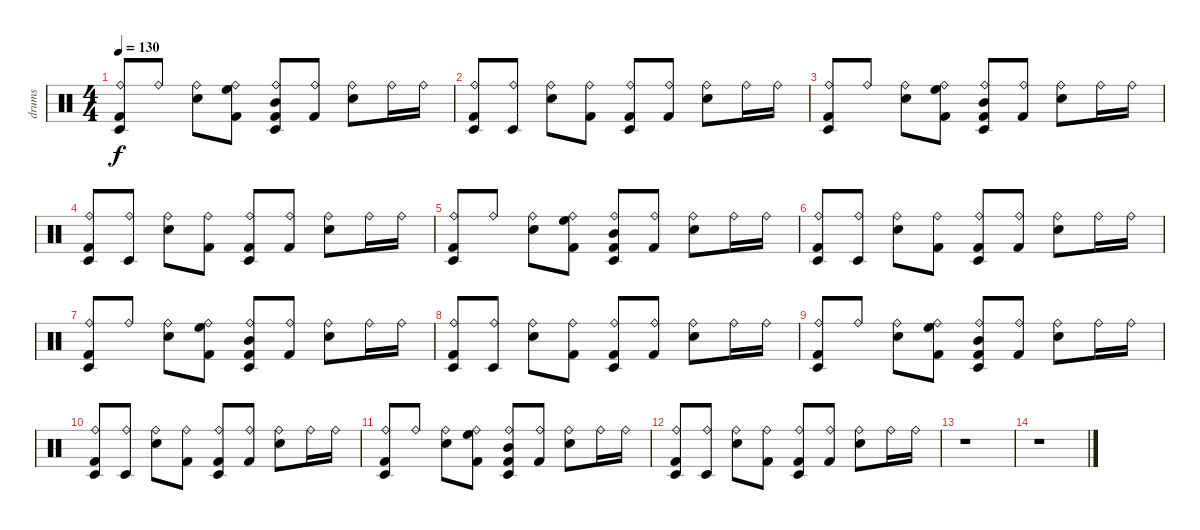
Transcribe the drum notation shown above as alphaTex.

\track ("drums" "drums") {instrument percussion}
\staff {score}
\articulation defaults
\ts (4 4)
\tempo 130
\clef neutral
\ks c
("Timbale low (hit)" "Ride (bell)" "Kick (hit) 2").8{dy f} "Ride (bell)".8 ("Ride (bell)" "Electric Snare (hit)").8 ("High Floor Tom (hit)" "Ride (bell)" "Kick (hit) 2").8 ("Timbale low (hit)" "Mid Tom (hit)" "Kick (hit) 2" "Ride (bell)").8 ("Ride (bell)" "Kick (hit) 2").8 ("Electric Snare (hit)" "Ride (bell)").8 "Ride (bell)".16 "Ride (bell)".16 |
("Ride (bell)" "Timbale low (hit)" "Kick (hit) 2").8 ("Timbale low (hit)" "Ride (bell)").8 ("Ride (bell)" "Electric Snare (hit)").8 ("Kick (hit) 2" "Ride (bell)").8 ("Timbale low (hit)" "Ride (bell)" "Kick (hit) 2").8 ("Ride (bell)" "Kick (hit) 2").8 ("Ride (bell)" "Electric Snare (hit)").8 "Ride (bell)".16 "Ride (bell)".16 |
("Timbale low (hit)" "Ride (bell)" "Kick (hit) 2").8 "Ride (bell)".8 ("Ride (bell)" "Electric Snare (hit)").8 ("High Floor Tom (hit)" "Ride (bell)" "Kick (hit) 2").8 ("Kick (hit) 2" "Timbale low (hit)" "Mid Tom (hit)" "Ride (bell)").8 ("Ride (bell)" "Kick (hit) 2").8 ("Electric Snare (hit)" "Ride (bell)").8 "Ride (bell)".16 "Ride (bell)".16 |
("Kick (hit) 2" "Timbale low (hit)" "Ride (bell)").8 ("Timbale low (hit)" "Ride (bell)").8 ("Ride (bell)" "Electric Snare (hit)").8 ("Kick (hit) 2" "Ride (bell)").8 ("Kick (hit) 2" "Ride (bell)" "Timbale low (hit)").8 ("Kick (hit) 2" "Ride (bell)").8 ("Electric Snare (hit)" "Ride (bell)").8 "Ride (bell)".16 "Ride (bell)".16 |
("Timbale low (hit)" "Ride (bell)" "Kick (hit) 2").8 "Ride (bell)".8 ("Ride (bell)" "Electric Snare (hit)").8 ("High Floor Tom (hit)" "Ride (bell)" "Kick (hit) 2").8 ("Timbale low (hit)" "Mid Tom (hit)" "Ride (bell)" "Kick (hit) 2").8 ("Kick (hit) 2" "Ride (bell)").8 ("Ride (bell)" "Electric Snare (hit)").8 "Ride (bell)".16 "Ride (bell)".16 |
("Kick (hit) 2" "Ride (bell)" "Timbale low (hit)").8 ("Timbale low (hit)" "Ride (bell)").8 ("Electric Snare (hit)" "Ride (bell)").8 ("Ride (bell)" "Kick (hit) 2").8 ("Timbale low (hit)" "Ride (bell)" "Kick (hit) 2").8 ("Ride (bell)" "Kick (hit) 2").8 ("Ride (bell)" "Electric Snare (hit)").8 "Ride (bell)".16 "Ride (bell)".16 |
("Timbale low (hit)" "Ride (bell)" "Kick (hit) 2").8 "Ride (bell)".8 ("Ride (bell)" "Electric Snare (hit)").8 ("Ride (bell)" "High Floor Tom (hit)" "Kick (hit) 2").8 ("Timbale low (hit)" "Ride (bell)" "Mid Tom (hit)" "Kick (hit) 2").8 ("Kick (hit) 2" "Ride (bell)").8 ("Ride (bell)" "Electric Snare (hit)").8 "Ride (bell)".16 "Ride (bell)".16 |
("Ride (bell)" "Timbale low (hit)" "Kick (hit) 2").8 ("Ride (bell)" "Timbale low (hit)").8 ("Electric Snare (hit)" "Ride (bell)").8 ("Kick (hit) 2" "Ride (bell)").8 ("Kick (hit) 2" "Ride (bell)" "Timbale low (hit)").8 ("Kick (hit) 2" "Ride (bell)").8 ("Electric Snare (hit)" "Ride (bell)").8 "Ride (bell)".16 "Ride (bell)".16 |
("Timbale low (hit)" "Ride (bell)" "Kick (hit) 2").8 "Ride (bell)".8 ("Electric Snare (hit)" "Ride (bell)").8 ("Ride (bell)" "High Floor Tom (hit)" "Kick (hit) 2").8 ("Ride (bell)" "Timbale low (hit)" "Mid Tom (hit)" "Kick (hit) 2").8 ("Kick (hit) 2" "Ride (bell)").8 ("Ride (bell)" "Electric Snare (hit)").8 "Ride (bell)".16 "Ride (bell)".16 |
("Kick (hit) 2" "Timbale low (hit)" "Ride (bell)").8 ("Timbale low (hit)" "Ride (bell)").8 ("Ride (bell)" "Electric Snare (hit)").8 ("Ride (bell)" "Kick (hit) 2").8 ("Timbale low (hit)" "Ride (bell)" "Kick (hit) 2").8 ("Ride (bell)" "Kick (hit) 2").8 ("Ride (bell)" "Electric Snare (hit)").8 "Ride (bell)".16 "Ride (bell)".16 |
("Timbale low (hit)" "Ride (bell)" "Kick (hit) 2").8 "Ride (bell)".8 ("Electric Snare (hit)" "Ride (bell)").8 ("Ride (bell)" "High Floor Tom (hit)" "Kick (hit) 2").8 ("Timbale low (hit)" "Ride (bell)" "Mid Tom (hit)" "Kick (hit) 2").8 ("Kick (hit) 2" "Ride (bell)").8 ("Ride (bell)" "Electric Snare (hit)").8 "Ride (bell)".16 "Ride (bell)".16 |
("Timbale low (hit)" "Kick (hit) 2" "Ride (bell)").8 ("Timbale low (hit)" "Ride (bell)").8 ("Electric Snare (hit)" "Ride (bell)").8 ("Kick (hit) 2" "Ride (bell)").8 ("Kick (hit) 2" "Ride (bell)" "Timbale low (hit)").8 ("Kick (hit) 2" "Ride (bell)").8 ("Electric Snare (hit)" "Ride (bell)").8 "Ride (bell)".16 "Ride (bell)".16 |
r.1 |
r.1
